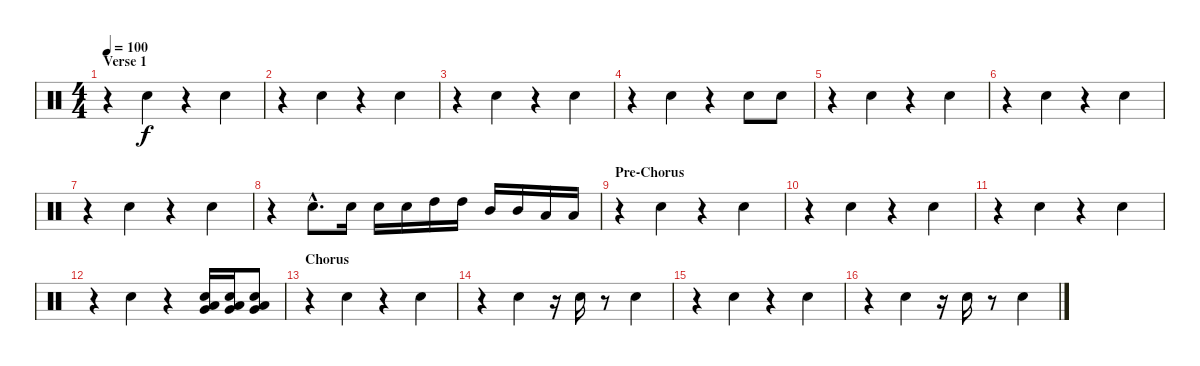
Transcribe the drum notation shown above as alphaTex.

\track "" {instrument percussion}
\staff {score}
\articulation defaults
\ts (4 4)
\section ("" "Verse 1")
\tempo 100
\clef neutral
\ks c
r.4{dy f} "Electric Snare (hit)".4 r.4 "Electric Snare (hit)".4 |
r.4 "Electric Snare (hit)".4 r.4 "Electric Snare (hit)".4 |
r.4 "Electric Snare (hit)".4 r.4 "Electric Snare (hit)".4 |
r.4 "Electric Snare (hit)".4 r.4 "Electric Snare (hit)".8 "Electric Snare (hit)".8 |
r.4 "Electric Snare (hit)".4 r.4 "Electric Snare (hit)".4 |
r.4 "Electric Snare (hit)".4 r.4 "Electric Snare (hit)".4 |
r.4 "Electric Snare (hit)".4 r.4 "Electric Snare (hit)".4 |
r.4 "Electric Snare (hit)"{hac}.8{d} "Electric Snare (hit)".16 "Electric Snare (hit)".16 "Electric Snare (hit)".16 "High Tom (hit)".16 "High Tom (hit)".16 "Mid Tom (hit)".16 "Mid Tom (hit)".16 "Low Tom (hit)".16 "Low Tom (hit)".16 |
\section ("" "Pre-Chorus")
r.4 "Electric Snare (hit)".4 r.4 "Electric Snare (hit)".4 |
r.4 "Electric Snare (hit)".4 r.4 "Electric Snare (hit)".4 |
r.4 "Electric Snare (hit)".4 r.4 "Electric Snare (hit)".4 |
r.4 "Electric Snare (hit)".4 r.4 ("Very Low Tom (hit)" "Low Tom (hit)" "Electric Snare (hit)").16 ("Very Low Tom (hit)" "Low Tom (hit)" "Electric Snare (hit)").16 ("Electric Snare (hit)" "Very Low Tom (hit)" "Low Tom (hit)").8 |
\section ("" "Chorus")
r.4 "Electric Snare (hit)".4 r.4 "Electric Snare (hit)".4 |
r.4 "Electric Snare (hit)".4 r.16 "Electric Snare (hit)".16 r.8 "Electric Snare (hit)".4 |
r.4 "Electric Snare (hit)".4 r.4 "Electric Snare (hit)".4 |
r.4 "Electric Snare (hit)".4 r.16 "Electric Snare (hit)".16 r.8 "Electric Snare (hit)".4
